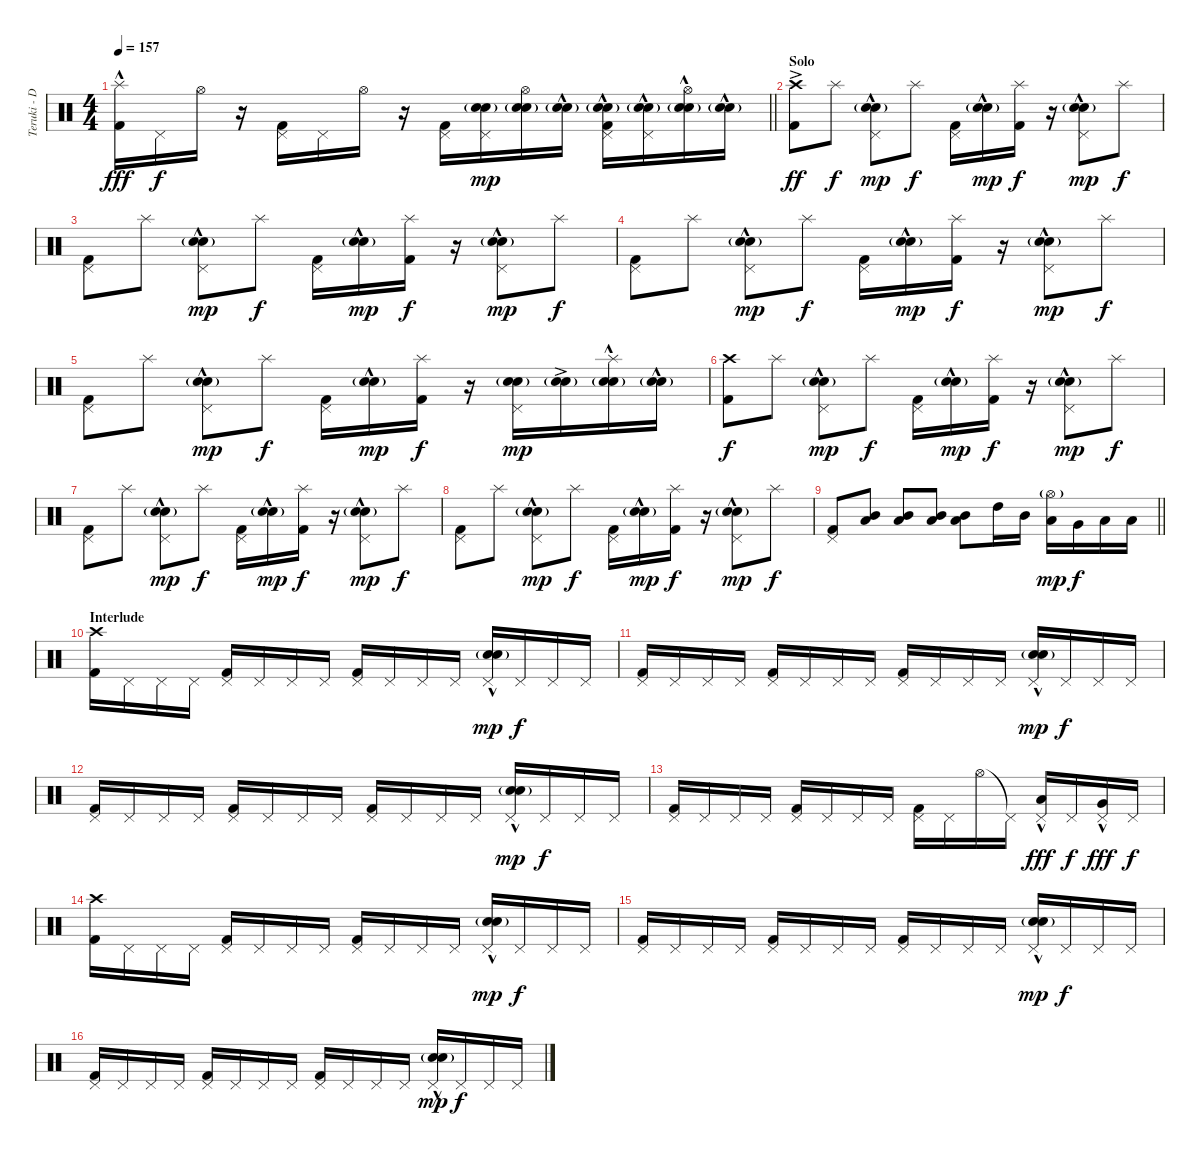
\track ("Teruki - Drums" "Teruki - D") {instrument percussion}
\staff {score}
\articulation defaults
\ts (4 4)
\tempo 157
\clef neutral
\barLineRight lightlight
\ks c
("Splash (hit)" "Kick (hit) 2"{hac}).16{dy fff} "Pedal Hi-Hat (hit)".16{dy f} "Hi-Hat (open)".16 r.16 ("Pedal Hi-Hat (hit)" "Kick (hit) 2").16 "Pedal Hi-Hat (hit)".16 "Hi-Hat (open)".16 r.16 ("Pedal Hi-Hat (hit)" "Kick (hit) 2").16 ("Pedal Hi-Hat (hit)" "Electric Snare (hit)"{g} "Snare (hit) 2"{g}).16{dy mp} ("Hi-Hat (open)" "Electric Snare (hit)" "Snare (hit) 2"{g}).16 ("Electric Snare (hit)"{hac} "Snare (hit) 2"{g}).16 ("Pedal Hi-Hat (hit)" "Electric Snare (hit)"{hac} "Snare (hit) 2"{g} "Kick (hit) 2").16 ("Pedal Hi-Hat (hit)" "Electric Snare (hit)"{hac} "Snare (hit) 2"{g}).16 ("Hi-Hat (open)" "Electric Snare (hit)"{hac} "Snare (hit) 2"{g}).16 ("Electric Snare (hit)"{hac} "Snare (hit) 2"{g}).16 |
\section ("" "Solo")
("Crash high (hit)"{ac} "Kick (hit) 2").8{dy ff} "Splash (hit)".8{dy f} ("Pedal Hi-Hat (hit)" "Electric Snare (hit)"{hac} "Snare (hit) 2"{g}).8{dy mp} "Splash (hit)".8{dy f} ("Pedal Hi-Hat (hit)" "Kick (hit) 2").16 ("Electric Snare (hit)"{hac} "Snare (hit) 2"{g}).16{dy mp} ("Splash (hit)" "Kick (hit) 2").16{dy f} r.16 ("Pedal Hi-Hat (hit)" "Electric Snare (hit)"{hac} "Snare (hit) 2"{g}).8{dy mp} "Splash (hit)".8{dy f} |
("Pedal Hi-Hat (hit)" "Kick (hit) 2").8 "Splash (hit)".8 ("Pedal Hi-Hat (hit)" "Electric Snare (hit)"{hac} "Snare (hit) 2"{g}).8{dy mp} "Splash (hit)".8{dy f} ("Pedal Hi-Hat (hit)" "Kick (hit) 2").16 ("Electric Snare (hit)"{hac} "Snare (hit) 2"{g}).16{dy mp} ("Splash (hit)" "Kick (hit) 2").16{dy f} r.16 ("Pedal Hi-Hat (hit)" "Electric Snare (hit)"{hac} "Snare (hit) 2"{g}).8{dy mp} "Splash (hit)".8{dy f} |
("Pedal Hi-Hat (hit)" "Kick (hit) 2").8 "Splash (hit)".8 ("Pedal Hi-Hat (hit)" "Electric Snare (hit)"{hac} "Snare (hit) 2"{g}).8{dy mp} "Splash (hit)".8{dy f} ("Pedal Hi-Hat (hit)" "Kick (hit) 2").16 ("Electric Snare (hit)"{hac} "Snare (hit) 2"{g}).16{dy mp} ("Splash (hit)" "Kick (hit) 2").16{dy f} r.16 ("Pedal Hi-Hat (hit)" "Electric Snare (hit)"{hac} "Snare (hit) 2"{g}).8{dy mp} "Splash (hit)".8{dy f} |
("Pedal Hi-Hat (hit)" "Kick (hit) 2").8 "Splash (hit)".8 ("Pedal Hi-Hat (hit)" "Electric Snare (hit)"{hac} "Snare (hit) 2"{g}).8{dy mp} "Splash (hit)".8{dy f} ("Pedal Hi-Hat (hit)" "Kick (hit) 2").16 ("Electric Snare (hit)"{hac} "Snare (hit) 2"{g}).16{dy mp} ("Splash (hit)" "Kick (hit) 2").16{dy f} r.16 ("Pedal Hi-Hat (hit)" "Electric Snare (hit)" "Snare (hit) 2"{g}).16{dy mp} ("Electric Snare (hit)"{ac} "Snare (hit) 2"{g}).16 ("Splash (hit)" "Electric Snare (hit)"{hac} "Snare (hit) 2"{g}).16 ("Electric Snare (hit)"{hac} "Snare (hit) 2"{g}).16 |
("Crash high (hit)" "Kick (hit) 2").8{dy f} "Splash (hit)".8 ("Pedal Hi-Hat (hit)" "Electric Snare (hit)"{hac} "Snare (hit) 2"{g}).8{dy mp} "Splash (hit)".8{dy f} ("Pedal Hi-Hat (hit)" "Kick (hit) 2").16 ("Electric Snare (hit)"{hac} "Snare (hit) 2"{g}).16{dy mp} ("Splash (hit)" "Kick (hit) 2").16{dy f} r.16 ("Pedal Hi-Hat (hit)" "Electric Snare (hit)"{hac} "Snare (hit) 2"{g}).8{dy mp} "Splash (hit)".8{dy f} |
("Pedal Hi-Hat (hit)" "Kick (hit) 2").8 "Splash (hit)".8 ("Pedal Hi-Hat (hit)" "Electric Snare (hit)"{hac} "Snare (hit) 2"{g}).8{dy mp} "Splash (hit)".8{dy f} ("Pedal Hi-Hat (hit)" "Kick (hit) 2").16 ("Electric Snare (hit)"{hac} "Snare (hit) 2"{g}).16{dy mp} ("Splash (hit)" "Kick (hit) 2").16{dy f} r.16 ("Pedal Hi-Hat (hit)" "Electric Snare (hit)"{hac} "Snare (hit) 2"{g}).8{dy mp} "Splash (hit)".8{dy f} |
("Pedal Hi-Hat (hit)" "Kick (hit) 2").8 "Splash (hit)".8 ("Pedal Hi-Hat (hit)" "Electric Snare (hit)"{hac} "Snare (hit) 2"{g}).8{dy mp} "Splash (hit)".8{dy f} ("Pedal Hi-Hat (hit)" "Kick (hit) 2").16 ("Electric Snare (hit)"{hac} "Snare (hit) 2"{g}).16{dy mp} ("Splash (hit)" "Kick (hit) 2").16{dy f} r.16 ("Pedal Hi-Hat (hit)" "Electric Snare (hit)"{hac} "Snare (hit) 2"{g}).8{dy mp} "Splash (hit)".8{dy f} |
\barLineRight lightlight
("Pedal Hi-Hat (hit)" "Kick (hit) 2").8 ("Mid Tom (hit)" "Low Tom (hit)").8 ("Mid Tom (hit)" "Low Tom (hit)").8 ("Mid Tom (hit)" "Low Tom (hit)").8 ("Mid Tom (hit)" "Low Tom (hit)").8 "High Tom (hit)".16 "Mid Tom (hit)".16 ("Hi-Hat (open)"{g} "Low Tom (hit)").16{dy mp} "Very Low Tom (hit)".16{dy f} "Low Floor Tom (hit)".16 "Low Floor Tom (hit)".16 |
\section ("" "Interlude")
("Crash high (hit)" "Kick (hit) 2").16 "Pedal Hi-Hat (hit)".16 "Pedal Hi-Hat (hit)".16 "Pedal Hi-Hat (hit)".16 ("Pedal Hi-Hat (hit)" "Kick (hit) 2").16 "Pedal Hi-Hat (hit)".16 "Pedal Hi-Hat (hit)".16 "Pedal Hi-Hat (hit)".16 ("Pedal Hi-Hat (hit)" "Kick (hit) 2").16 "Pedal Hi-Hat (hit)".16 "Pedal Hi-Hat (hit)".16 "Pedal Hi-Hat (hit)".16 ("Pedal Hi-Hat (hit)" "Electric Snare (hit)"{hac} "Snare (hit) 2"{g}).16{dy mp} "Pedal Hi-Hat (hit)".16{dy f} "Pedal Hi-Hat (hit)".16 "Pedal Hi-Hat (hit)".16 |
("Pedal Hi-Hat (hit)" "Kick (hit) 2").16 "Pedal Hi-Hat (hit)".16 "Pedal Hi-Hat (hit)".16 "Pedal Hi-Hat (hit)".16 ("Pedal Hi-Hat (hit)" "Kick (hit) 2").16 "Pedal Hi-Hat (hit)".16 "Pedal Hi-Hat (hit)".16 "Pedal Hi-Hat (hit)".16 ("Pedal Hi-Hat (hit)" "Kick (hit) 2").16 "Pedal Hi-Hat (hit)".16 "Pedal Hi-Hat (hit)".16 "Pedal Hi-Hat (hit)".16 ("Pedal Hi-Hat (hit)" "Electric Snare (hit)"{hac} "Snare (hit) 2"{g}).16{dy mp} "Pedal Hi-Hat (hit)".16{dy f} "Pedal Hi-Hat (hit)".16 "Pedal Hi-Hat (hit)".16 |
("Pedal Hi-Hat (hit)" "Kick (hit) 2").16 "Pedal Hi-Hat (hit)".16 "Pedal Hi-Hat (hit)".16 "Pedal Hi-Hat (hit)".16 ("Pedal Hi-Hat (hit)" "Kick (hit) 2").16 "Pedal Hi-Hat (hit)".16 "Pedal Hi-Hat (hit)".16 "Pedal Hi-Hat (hit)".16 ("Pedal Hi-Hat (hit)" "Kick (hit) 2").16 "Pedal Hi-Hat (hit)".16 "Pedal Hi-Hat (hit)".16 "Pedal Hi-Hat (hit)".16 ("Pedal Hi-Hat (hit)" "Electric Snare (hit)"{hac} "Snare (hit) 2"{g}).16{dy mp} "Pedal Hi-Hat (hit)".16{dy f} "Pedal Hi-Hat (hit)".16 "Pedal Hi-Hat (hit)".16 |
("Pedal Hi-Hat (hit)" "Kick (hit) 2").16 "Pedal Hi-Hat (hit)".16 "Pedal Hi-Hat (hit)".16 "Pedal Hi-Hat (hit)".16 ("Pedal Hi-Hat (hit)" "Kick (hit) 2").16 "Pedal Hi-Hat (hit)".16 "Pedal Hi-Hat (hit)".16 "Pedal Hi-Hat (hit)".16 ("Pedal Hi-Hat (hit)" "Kick (hit) 2").16 "Pedal Hi-Hat (hit)".16 "Hi-Hat (open)".16 "Pedal Hi-Hat (hit)"{t}.16 ("Pedal Hi-Hat (hit)" "Low Tom (hit)"{hac}).16{dy fff} "Pedal Hi-Hat (hit)".16{dy f} ("Pedal Hi-Hat (hit)" "Very Low Tom (hit)"{hac}).16{dy fff} "Pedal Hi-Hat (hit)".16{dy f} |
("Crash high (hit)" "Kick (hit) 2").16 "Pedal Hi-Hat (hit)".16 "Pedal Hi-Hat (hit)".16 "Pedal Hi-Hat (hit)".16 ("Pedal Hi-Hat (hit)" "Kick (hit) 2").16 "Pedal Hi-Hat (hit)".16 "Pedal Hi-Hat (hit)".16 "Pedal Hi-Hat (hit)".16 ("Pedal Hi-Hat (hit)" "Kick (hit) 2").16 "Pedal Hi-Hat (hit)".16 "Pedal Hi-Hat (hit)".16 "Pedal Hi-Hat (hit)".16 ("Pedal Hi-Hat (hit)" "Electric Snare (hit)"{hac} "Snare (hit) 2"{g}).16{dy mp} "Pedal Hi-Hat (hit)".16{dy f} "Pedal Hi-Hat (hit)".16 "Pedal Hi-Hat (hit)".16 |
("Pedal Hi-Hat (hit)" "Kick (hit) 2").16 "Pedal Hi-Hat (hit)".16 "Pedal Hi-Hat (hit)".16 "Pedal Hi-Hat (hit)".16 ("Pedal Hi-Hat (hit)" "Kick (hit) 2").16 "Pedal Hi-Hat (hit)".16 "Pedal Hi-Hat (hit)".16 "Pedal Hi-Hat (hit)".16 ("Pedal Hi-Hat (hit)" "Kick (hit) 2").16 "Pedal Hi-Hat (hit)".16 "Pedal Hi-Hat (hit)".16 "Pedal Hi-Hat (hit)".16 ("Pedal Hi-Hat (hit)" "Electric Snare (hit)"{hac} "Snare (hit) 2"{g}).16{dy mp} "Pedal Hi-Hat (hit)".16{dy f} "Pedal Hi-Hat (hit)".16 "Pedal Hi-Hat (hit)".16 |
("Pedal Hi-Hat (hit)" "Kick (hit) 2").16 "Pedal Hi-Hat (hit)".16 "Pedal Hi-Hat (hit)".16 "Pedal Hi-Hat (hit)".16 ("Pedal Hi-Hat (hit)" "Kick (hit) 2").16 "Pedal Hi-Hat (hit)".16 "Pedal Hi-Hat (hit)".16 "Pedal Hi-Hat (hit)".16 ("Pedal Hi-Hat (hit)" "Kick (hit) 2").16 "Pedal Hi-Hat (hit)".16 "Pedal Hi-Hat (hit)".16 "Pedal Hi-Hat (hit)".16 ("Pedal Hi-Hat (hit)" "Electric Snare (hit)"{hac} "Snare (hit) 2"{g}).16{dy mp} "Pedal Hi-Hat (hit)".16{dy f} "Pedal Hi-Hat (hit)".16 "Pedal Hi-Hat (hit)".16
